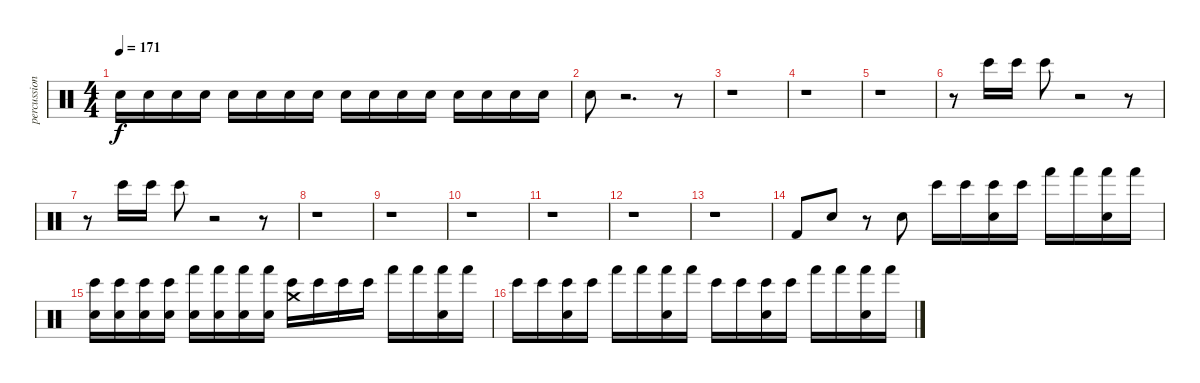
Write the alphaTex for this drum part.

\track ("percussion" "percussion") {instrument percussion}
\staff {score}
\articulation defaults
\ts (4 4)
\tempo 171
\clef neutral
\ks c "Electric Snare (hit)".16{dy f} "Electric Snare (hit)".16 "Electric Snare (hit)".16 "Electric Snare (hit)".16 "Electric Snare (hit)".16 "Electric Snare (hit)".16 "Electric Snare (hit)".16 "Electric Snare (hit)".16 "Electric Snare (hit)".16 "Electric Snare (hit)".16 "Electric Snare (hit)".16 "Electric Snare (hit)".16 "Electric Snare (hit)".16 "Electric Snare (hit)".16 "Electric Snare (hit)".16 "Electric Snare (hit)".16
|
"Electric Snare (hit)".8 r.2{d} r.8 |
r.1 |
r.1 |
r.1 |
r.8 "Bongo High (hit)".16 "Bongo High (hit)".16 "Bongo High (hit)".8 r.2 r.8 |
r.8 "Bongo High (hit)".16 "Bongo High (hit)".16 "Bongo High (hit)".8 r.2 r.8 |
r.1 |
r.1 |
r.1 |
r.1 |
r.1 |
r.1 |
"Kick (hit) 2".8 "Electric Snare (hit)".8 r.8 "Electric Snare (hit)".8 "Bongo High (hit)".16 "Bongo High (hit)".16 ("Electric Snare (hit)" "Bongo High (hit)").16 "Bongo High (hit)".16 "Hand (hit)".16 "Hand (hit)".16 ("Electric Snare (hit)" "Hand (hit)").16 "Hand (hit)".16 |
("Electric Snare (hit)" "Bongo High (hit)").16 ("Electric Snare (hit)" "Bongo High (hit)").16 ("Electric Snare (hit)" "Bongo High (hit)").16 ("Electric Snare (hit)" "Bongo High (hit)").16 ("Electric Snare (hit)" "Hand (hit)").16 ("Electric Snare (hit)" "Hand (hit)").16 ("Electric Snare (hit)" "Hand (hit)").16 ("Electric Snare (hit)" "Hand (hit)").16 ("Crash medium (hit)" "Bongo High (hit)").16 "Bongo High (hit)".16 "Bongo High (hit)".16 "Bongo High (hit)".16 "Hand (hit)".16 "Hand (hit)".16 ("Electric Snare (hit)" "Hand (hit)").16 "Hand (hit)".16 |
"Bongo High (hit)".16 "Bongo High (hit)".16 ("Electric Snare (hit)" "Bongo High (hit)").16 "Bongo High (hit)".16 "Hand (hit)".16 "Hand (hit)".16 ("Electric Snare (hit)" "Hand (hit)").16 "Hand (hit)".16 "Bongo High (hit)".16 "Bongo High (hit)".16 ("Electric Snare (hit)" "Bongo High (hit)").16 "Bongo High (hit)".16 "Hand (hit)".16 "Hand (hit)".16 ("Electric Snare (hit)" "Hand (hit)").16 "Hand (hit)".16
